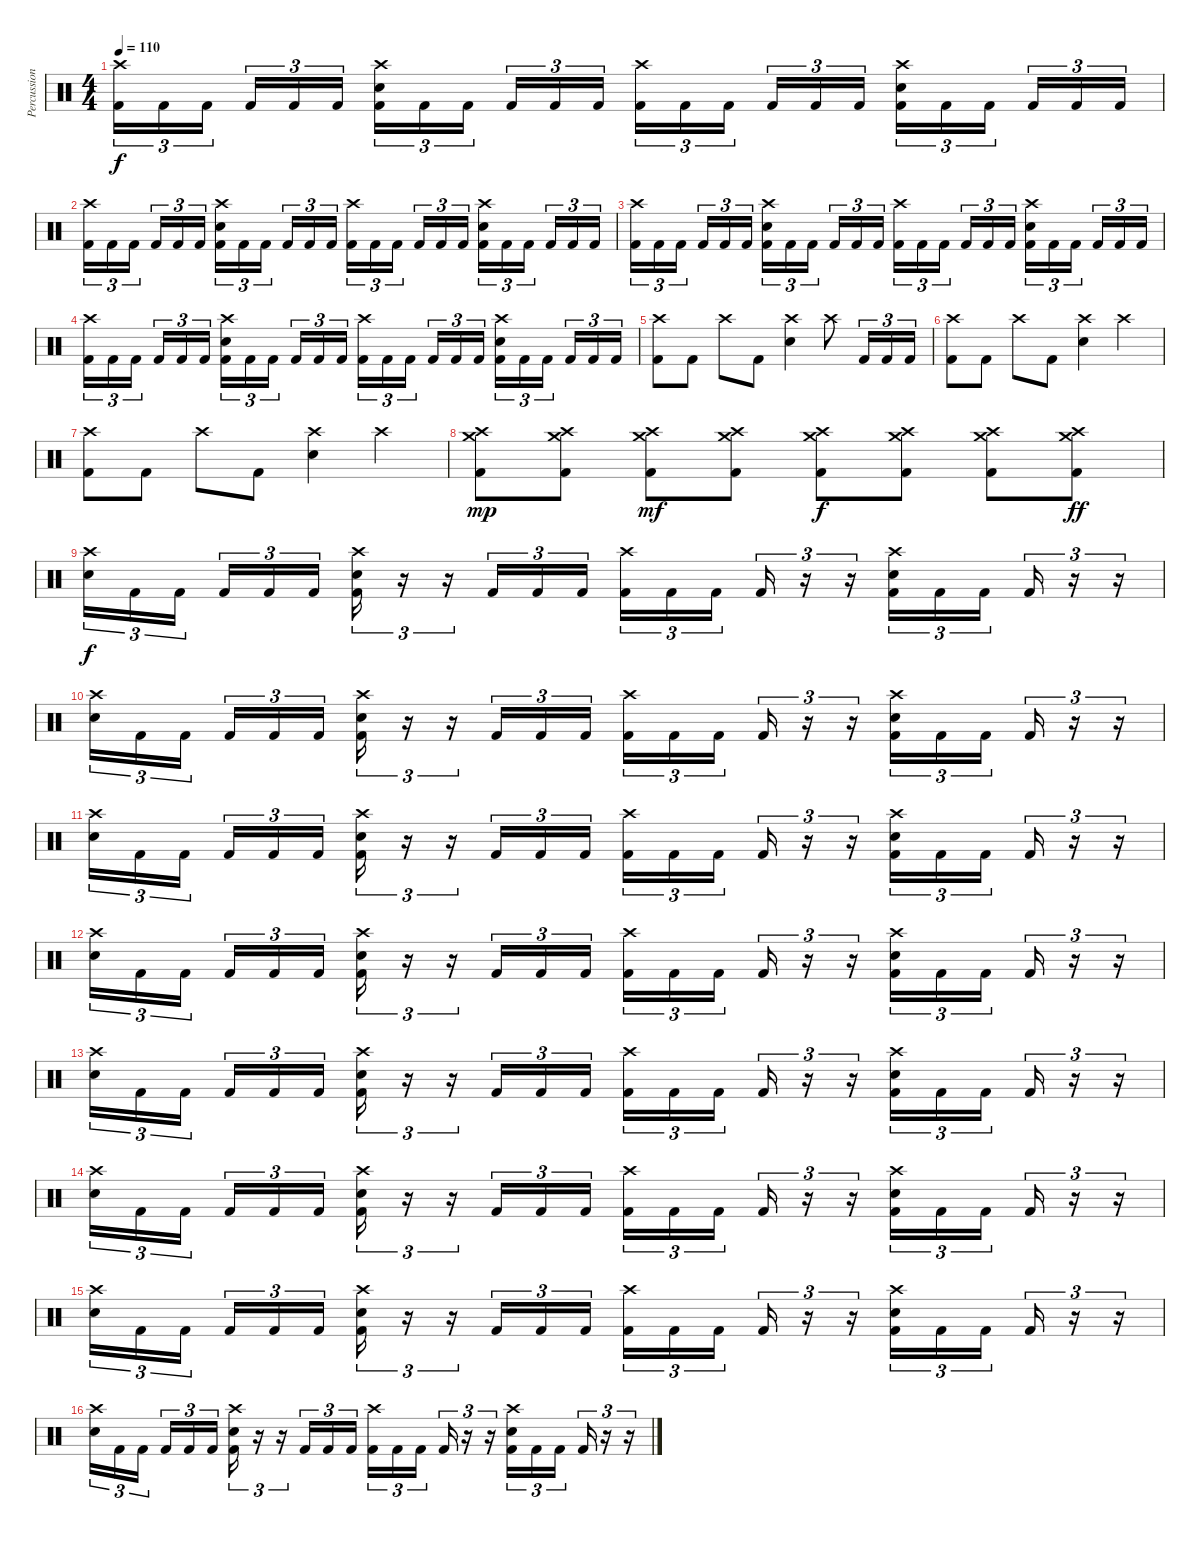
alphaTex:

\track ("Percussion" "Percussion") {instrument percussion}
\staff {score}
\articulation defaults
\ts (4 4)
\tempo 110
\clef neutral
\ks c
("Crash high (hit)" "Kick (hit) 2").16{tu (3 2) dy f} "Kick (hit) 2".16{tu (3 2)} "Kick (hit) 2".16{tu (3 2) beam splitsecondary} "Kick (hit) 2".16{tu (3 2)} "Kick (hit) 2".16{tu (3 2)} "Kick (hit) 2".16{tu (3 2)} ("Crash high (hit)" "Electric Snare (hit)" "Kick (hit) 2").16{tu (3 2)} "Kick (hit) 2".16{tu (3 2)} "Kick (hit) 2".16{tu (3 2) beam splitsecondary} "Kick (hit) 2".16{tu (3 2)} "Kick (hit) 2".16{tu (3 2)} "Kick (hit) 2".16{tu (3 2)} ("Crash high (hit)" "Kick (hit) 2").16{tu (3 2)} "Kick (hit) 2".16{tu (3 2)} "Kick (hit) 2".16{tu (3 2) beam splitsecondary} "Kick (hit) 2".16{tu (3 2)} "Kick (hit) 2".16{tu (3 2)} "Kick (hit) 2".16{tu (3 2)} ("Crash high (hit)" "Electric Snare (hit)" "Kick (hit) 2").16{tu (3 2)} "Kick (hit) 2".16{tu (3 2)} "Kick (hit) 2".16{tu (3 2) beam splitsecondary} "Kick (hit) 2".16{tu (3 2)} "Kick (hit) 2".16{tu (3 2)} "Kick (hit) 2".16{tu (3 2)} |
("Crash high (hit)" "Kick (hit) 2").16{tu (3 2)} "Kick (hit) 2".16{tu (3 2)} "Kick (hit) 2".16{tu (3 2) beam splitsecondary} "Kick (hit) 2".16{tu (3 2)} "Kick (hit) 2".16{tu (3 2)} "Kick (hit) 2".16{tu (3 2)} ("Crash high (hit)" "Electric Snare (hit)" "Kick (hit) 2").16{tu (3 2)} "Kick (hit) 2".16{tu (3 2)} "Kick (hit) 2".16{tu (3 2) beam splitsecondary} "Kick (hit) 2".16{tu (3 2)} "Kick (hit) 2".16{tu (3 2)} "Kick (hit) 2".16{tu (3 2)} ("Crash high (hit)" "Kick (hit) 2").16{tu (3 2)} "Kick (hit) 2".16{tu (3 2)} "Kick (hit) 2".16{tu (3 2) beam splitsecondary} "Kick (hit) 2".16{tu (3 2)} "Kick (hit) 2".16{tu (3 2)} "Kick (hit) 2".16{tu (3 2)} ("Crash high (hit)" "Electric Snare (hit)" "Kick (hit) 2").16{tu (3 2)} "Kick (hit) 2".16{tu (3 2)} "Kick (hit) 2".16{tu (3 2) beam splitsecondary} "Kick (hit) 2".16{tu (3 2)} "Kick (hit) 2".16{tu (3 2)} "Kick (hit) 2".16{tu (3 2)} |
("Crash high (hit)" "Kick (hit) 2").16{tu (3 2)} "Kick (hit) 2".16{tu (3 2)} "Kick (hit) 2".16{tu (3 2) beam splitsecondary} "Kick (hit) 2".16{tu (3 2)} "Kick (hit) 2".16{tu (3 2)} "Kick (hit) 2".16{tu (3 2)} ("Crash high (hit)" "Electric Snare (hit)" "Kick (hit) 2").16{tu (3 2)} "Kick (hit) 2".16{tu (3 2)} "Kick (hit) 2".16{tu (3 2) beam splitsecondary} "Kick (hit) 2".16{tu (3 2)} "Kick (hit) 2".16{tu (3 2)} "Kick (hit) 2".16{tu (3 2)} ("Crash high (hit)" "Kick (hit) 2").16{tu (3 2)} "Kick (hit) 2".16{tu (3 2)} "Kick (hit) 2".16{tu (3 2) beam splitsecondary} "Kick (hit) 2".16{tu (3 2)} "Kick (hit) 2".16{tu (3 2)} "Kick (hit) 2".16{tu (3 2)} ("Crash high (hit)" "Electric Snare (hit)" "Kick (hit) 2").16{tu (3 2)} "Kick (hit) 2".16{tu (3 2)} "Kick (hit) 2".16{tu (3 2) beam splitsecondary} "Kick (hit) 2".16{tu (3 2)} "Kick (hit) 2".16{tu (3 2)} "Kick (hit) 2".16{tu (3 2)} |
("Crash high (hit)" "Kick (hit) 2").16{tu (3 2)} "Kick (hit) 2".16{tu (3 2)} "Kick (hit) 2".16{tu (3 2) beam splitsecondary} "Kick (hit) 2".16{tu (3 2)} "Kick (hit) 2".16{tu (3 2)} "Kick (hit) 2".16{tu (3 2)} ("Crash high (hit)" "Electric Snare (hit)" "Kick (hit) 2").16{tu (3 2)} "Kick (hit) 2".16{tu (3 2)} "Kick (hit) 2".16{tu (3 2) beam splitsecondary} "Kick (hit) 2".16{tu (3 2)} "Kick (hit) 2".16{tu (3 2)} "Kick (hit) 2".16{tu (3 2)} ("Crash high (hit)" "Kick (hit) 2").16{tu (3 2)} "Kick (hit) 2".16{tu (3 2)} "Kick (hit) 2".16{tu (3 2) beam splitsecondary} "Kick (hit) 2".16{tu (3 2)} "Kick (hit) 2".16{tu (3 2)} "Kick (hit) 2".16{tu (3 2)} ("Crash high (hit)" "Electric Snare (hit)" "Kick (hit) 2").16{tu (3 2)} "Kick (hit) 2".16{tu (3 2)} "Kick (hit) 2".16{tu (3 2) beam splitsecondary} "Kick (hit) 2".16{tu (3 2)} "Kick (hit) 2".16{tu (3 2)} "Kick (hit) 2".16{tu (3 2)} |
("Crash high (hit)" "Kick (hit) 2").8 "Kick (hit) 2".8 "Crash high (hit)".8 "Kick (hit) 2".8 ("Crash high (hit)" "Electric Snare (hit)").4 "Crash high (hit)".8 "Kick (hit) 2".16{tu (3 2)} "Kick (hit) 2".16{tu (3 2)} "Kick (hit) 2".16{tu (3 2)} |
("Crash high (hit)" "Kick (hit) 2").8 "Kick (hit) 2".8 "Crash high (hit)".8 "Kick (hit) 2".8 ("Crash high (hit)" "Electric Snare (hit)").4 "Crash high (hit)".4 |
("Crash high (hit)" "Kick (hit) 2").8 "Kick (hit) 2".8 "Crash high (hit)".8 "Kick (hit) 2".8 ("Crash high (hit)" "Electric Snare (hit)").4 "Crash high (hit)".4 |
("Crash high (hit)" "Crash medium (hit)" "Kick (hit) 2").8{dy mp} ("Crash high (hit)" "Crash medium (hit)" "Kick (hit) 2").8 ("Crash high (hit)" "Crash medium (hit)" "Kick (hit) 2").8{dy mf} ("Crash high (hit)" "Crash medium (hit)" "Kick (hit) 2").8 ("Crash high (hit)" "Crash medium (hit)" "Kick (hit) 2").8{dy f} ("Crash high (hit)" "Crash medium (hit)" "Kick (hit) 2").8 ("Crash high (hit)" "Crash medium (hit)" "Kick (hit) 2").8 ("Crash high (hit)" "Crash medium (hit)" "Kick (hit) 2").8{dy ff} |
("Crash high (hit)" "Snare (hit)").16{tu (3 2) dy f} "Kick (hit) 2".16{tu (3 2)} "Kick (hit) 2".16{tu (3 2) beam splitsecondary} "Kick (hit) 2".16{tu (3 2)} "Kick (hit) 2".16{tu (3 2)} "Kick (hit) 2".16{tu (3 2)} ("Crash high (hit)" "Electric Snare (hit)" "Kick (hit) 2").16{tu (3 2)} r.16{tu (3 2)} r.16{tu (3 2)} "Kick (hit) 2".16{tu (3 2)} "Kick (hit) 2".16{tu (3 2)} "Kick (hit) 2".16{tu (3 2)} ("Crash high (hit)" "Kick (hit) 2").16{tu (3 2)} "Kick (hit) 2".16{tu (3 2)} "Kick (hit) 2".16{tu (3 2) beam splitsecondary} "Kick (hit) 2".16{tu (3 2)} r.16{tu (3 2)} r.16{tu (3 2)} ("Crash high (hit)" "Electric Snare (hit)" "Kick (hit) 2").16{tu (3 2)} "Kick (hit) 2".16{tu (3 2)} "Kick (hit) 2".16{tu (3 2) beam splitsecondary} "Kick (hit) 2".16{tu (3 2)} r.16{tu (3 2)} r.16{tu (3 2)} |
("Crash high (hit)" "Snare (hit)").16{tu (3 2)} "Kick (hit) 2".16{tu (3 2)} "Kick (hit) 2".16{tu (3 2) beam splitsecondary} "Kick (hit) 2".16{tu (3 2)} "Kick (hit) 2".16{tu (3 2)} "Kick (hit) 2".16{tu (3 2)} ("Crash high (hit)" "Electric Snare (hit)" "Kick (hit) 2").16{tu (3 2)} r.16{tu (3 2)} r.16{tu (3 2)} "Kick (hit) 2".16{tu (3 2)} "Kick (hit) 2".16{tu (3 2)} "Kick (hit) 2".16{tu (3 2)} ("Crash high (hit)" "Kick (hit) 2").16{tu (3 2)} "Kick (hit) 2".16{tu (3 2)} "Kick (hit) 2".16{tu (3 2) beam splitsecondary} "Kick (hit) 2".16{tu (3 2)} r.16{tu (3 2)} r.16{tu (3 2)} ("Crash high (hit)" "Electric Snare (hit)" "Kick (hit) 2").16{tu (3 2)} "Kick (hit) 2".16{tu (3 2)} "Kick (hit) 2".16{tu (3 2) beam splitsecondary} "Kick (hit) 2".16{tu (3 2)} r.16{tu (3 2)} r.16{tu (3 2)} |
("Crash high (hit)" "Snare (hit)").16{tu (3 2)} "Kick (hit) 2".16{tu (3 2)} "Kick (hit) 2".16{tu (3 2) beam splitsecondary} "Kick (hit) 2".16{tu (3 2)} "Kick (hit) 2".16{tu (3 2)} "Kick (hit) 2".16{tu (3 2)} ("Crash high (hit)" "Electric Snare (hit)" "Kick (hit) 2").16{tu (3 2)} r.16{tu (3 2)} r.16{tu (3 2)} "Kick (hit) 2".16{tu (3 2)} "Kick (hit) 2".16{tu (3 2)} "Kick (hit) 2".16{tu (3 2)} ("Crash high (hit)" "Kick (hit) 2").16{tu (3 2)} "Kick (hit) 2".16{tu (3 2)} "Kick (hit) 2".16{tu (3 2) beam splitsecondary} "Kick (hit) 2".16{tu (3 2)} r.16{tu (3 2)} r.16{tu (3 2)} ("Crash high (hit)" "Electric Snare (hit)" "Kick (hit) 2").16{tu (3 2)} "Kick (hit) 2".16{tu (3 2)} "Kick (hit) 2".16{tu (3 2) beam splitsecondary} "Kick (hit) 2".16{tu (3 2)} r.16{tu (3 2)} r.16{tu (3 2)} |
("Crash high (hit)" "Snare (hit)").16{tu (3 2)} "Kick (hit) 2".16{tu (3 2)} "Kick (hit) 2".16{tu (3 2) beam splitsecondary} "Kick (hit) 2".16{tu (3 2)} "Kick (hit) 2".16{tu (3 2)} "Kick (hit) 2".16{tu (3 2)} ("Crash high (hit)" "Electric Snare (hit)" "Kick (hit) 2").16{tu (3 2)} r.16{tu (3 2)} r.16{tu (3 2)} "Kick (hit) 2".16{tu (3 2)} "Kick (hit) 2".16{tu (3 2)} "Kick (hit) 2".16{tu (3 2)} ("Crash high (hit)" "Kick (hit) 2").16{tu (3 2)} "Kick (hit) 2".16{tu (3 2)} "Kick (hit) 2".16{tu (3 2) beam splitsecondary} "Kick (hit) 2".16{tu (3 2)} r.16{tu (3 2)} r.16{tu (3 2)} ("Crash high (hit)" "Electric Snare (hit)" "Kick (hit) 2").16{tu (3 2)} "Kick (hit) 2".16{tu (3 2)} "Kick (hit) 2".16{tu (3 2) beam splitsecondary} "Kick (hit) 2".16{tu (3 2)} r.16{tu (3 2)} r.16{tu (3 2)} |
("Crash high (hit)" "Snare (hit)").16{tu (3 2)} "Kick (hit) 2".16{tu (3 2)} "Kick (hit) 2".16{tu (3 2) beam splitsecondary} "Kick (hit) 2".16{tu (3 2)} "Kick (hit) 2".16{tu (3 2)} "Kick (hit) 2".16{tu (3 2)} ("Crash high (hit)" "Electric Snare (hit)" "Kick (hit) 2").16{tu (3 2)} r.16{tu (3 2)} r.16{tu (3 2)} "Kick (hit) 2".16{tu (3 2)} "Kick (hit) 2".16{tu (3 2)} "Kick (hit) 2".16{tu (3 2)} ("Crash high (hit)" "Kick (hit) 2").16{tu (3 2)} "Kick (hit) 2".16{tu (3 2)} "Kick (hit) 2".16{tu (3 2) beam splitsecondary} "Kick (hit) 2".16{tu (3 2)} r.16{tu (3 2)} r.16{tu (3 2)} ("Crash high (hit)" "Electric Snare (hit)" "Kick (hit) 2").16{tu (3 2)} "Kick (hit) 2".16{tu (3 2)} "Kick (hit) 2".16{tu (3 2) beam splitsecondary} "Kick (hit) 2".16{tu (3 2)} r.16{tu (3 2)} r.16{tu (3 2)} |
("Crash high (hit)" "Snare (hit)").16{tu (3 2)} "Kick (hit) 2".16{tu (3 2)} "Kick (hit) 2".16{tu (3 2) beam splitsecondary} "Kick (hit) 2".16{tu (3 2)} "Kick (hit) 2".16{tu (3 2)} "Kick (hit) 2".16{tu (3 2)} ("Crash high (hit)" "Electric Snare (hit)" "Kick (hit) 2").16{tu (3 2)} r.16{tu (3 2)} r.16{tu (3 2)} "Kick (hit) 2".16{tu (3 2)} "Kick (hit) 2".16{tu (3 2)} "Kick (hit) 2".16{tu (3 2)} ("Crash high (hit)" "Kick (hit) 2").16{tu (3 2)} "Kick (hit) 2".16{tu (3 2)} "Kick (hit) 2".16{tu (3 2) beam splitsecondary} "Kick (hit) 2".16{tu (3 2)} r.16{tu (3 2)} r.16{tu (3 2)} ("Crash high (hit)" "Electric Snare (hit)" "Kick (hit) 2").16{tu (3 2)} "Kick (hit) 2".16{tu (3 2)} "Kick (hit) 2".16{tu (3 2) beam splitsecondary} "Kick (hit) 2".16{tu (3 2)} r.16{tu (3 2)} r.16{tu (3 2)} |
("Crash high (hit)" "Snare (hit)").16{tu (3 2)} "Kick (hit) 2".16{tu (3 2)} "Kick (hit) 2".16{tu (3 2) beam splitsecondary} "Kick (hit) 2".16{tu (3 2)} "Kick (hit) 2".16{tu (3 2)} "Kick (hit) 2".16{tu (3 2)} ("Crash high (hit)" "Electric Snare (hit)" "Kick (hit) 2").16{tu (3 2)} r.16{tu (3 2)} r.16{tu (3 2)} "Kick (hit) 2".16{tu (3 2)} "Kick (hit) 2".16{tu (3 2)} "Kick (hit) 2".16{tu (3 2)} ("Crash high (hit)" "Kick (hit) 2").16{tu (3 2)} "Kick (hit) 2".16{tu (3 2)} "Kick (hit) 2".16{tu (3 2) beam splitsecondary} "Kick (hit) 2".16{tu (3 2)} r.16{tu (3 2)} r.16{tu (3 2)} ("Crash high (hit)" "Electric Snare (hit)" "Kick (hit) 2").16{tu (3 2)} "Kick (hit) 2".16{tu (3 2)} "Kick (hit) 2".16{tu (3 2) beam splitsecondary} "Kick (hit) 2".16{tu (3 2)} r.16{tu (3 2)} r.16{tu (3 2)} |
("Crash high (hit)" "Snare (hit)").16{tu (3 2)} "Kick (hit) 2".16{tu (3 2)} "Kick (hit) 2".16{tu (3 2) beam splitsecondary} "Kick (hit) 2".16{tu (3 2)} "Kick (hit) 2".16{tu (3 2)} "Kick (hit) 2".16{tu (3 2)} ("Crash high (hit)" "Electric Snare (hit)" "Kick (hit) 2").16{tu (3 2)} r.16{tu (3 2)} r.16{tu (3 2)} "Kick (hit) 2".16{tu (3 2)} "Kick (hit) 2".16{tu (3 2)} "Kick (hit) 2".16{tu (3 2)} ("Crash high (hit)" "Kick (hit) 2").16{tu (3 2)} "Kick (hit) 2".16{tu (3 2)} "Kick (hit) 2".16{tu (3 2) beam splitsecondary} "Kick (hit) 2".16{tu (3 2)} r.16{tu (3 2)} r.16{tu (3 2)} ("Crash high (hit)" "Electric Snare (hit)" "Kick (hit) 2").16{tu (3 2)} "Kick (hit) 2".16{tu (3 2)} "Kick (hit) 2".16{tu (3 2) beam splitsecondary} "Kick (hit) 2".16{tu (3 2)} r.16{tu (3 2)} r.16{tu (3 2)}
